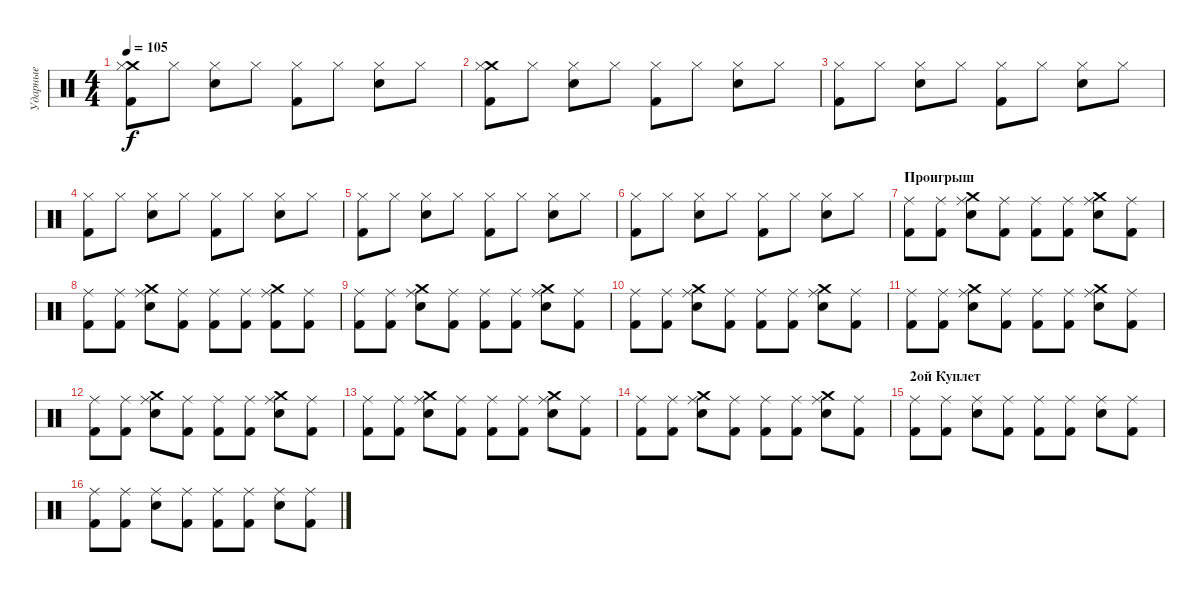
\track ("Ударные" "Ударные") {instrument percussion}
\staff {score}
\articulation defaults
\ts (4 4)
\tempo 105
\clef neutral
\ks c
("Crash medium (hit)" "Hi-Hat (closed)" "Kick (hit) 2").8{dy f} "Hi-Hat (closed)".8 ("Hi-Hat (closed)" "Electric Snare (hit)").8 "Hi-Hat (closed)".8 ("Hi-Hat (closed)" "Kick (hit) 2").8 "Hi-Hat (closed)".8 ("Hi-Hat (closed)" "Electric Snare (hit)").8 "Hi-Hat (closed)".8 |
("Crash medium (hit)" "Hi-Hat (closed)" "Kick (hit) 2").8 "Hi-Hat (closed)".8 ("Hi-Hat (closed)" "Electric Snare (hit)").8 "Hi-Hat (closed)".8 ("Hi-Hat (closed)" "Kick (hit) 2").8 "Hi-Hat (closed)".8 ("Hi-Hat (closed)" "Electric Snare (hit)").8 "Hi-Hat (closed)".8 |
("Hi-Hat (closed)" "Kick (hit) 2").8 "Hi-Hat (closed)".8 ("Hi-Hat (closed)" "Electric Snare (hit)").8 "Hi-Hat (closed)".8 ("Hi-Hat (closed)" "Kick (hit) 2").8 "Hi-Hat (closed)".8 ("Hi-Hat (closed)" "Electric Snare (hit)").8 "Hi-Hat (closed)".8 |
("Hi-Hat (closed)" "Kick (hit) 2").8 "Hi-Hat (closed)".8 ("Hi-Hat (closed)" "Electric Snare (hit)").8 "Hi-Hat (closed)".8 ("Hi-Hat (closed)" "Kick (hit) 2").8 "Hi-Hat (closed)".8 ("Hi-Hat (closed)" "Electric Snare (hit)").8 "Hi-Hat (closed)".8 |
("Hi-Hat (closed)" "Kick (hit) 2").8 "Hi-Hat (closed)".8 ("Hi-Hat (closed)" "Electric Snare (hit)").8 "Hi-Hat (closed)".8 ("Hi-Hat (closed)" "Kick (hit) 2").8 "Hi-Hat (closed)".8 ("Hi-Hat (closed)" "Electric Snare (hit)").8 "Hi-Hat (closed)".8 |
("Hi-Hat (closed)" "Kick (hit) 2").8 "Hi-Hat (closed)".8 ("Hi-Hat (closed)" "Electric Snare (hit)").8 "Hi-Hat (closed)".8 ("Hi-Hat (closed)" "Kick (hit) 2").8 "Hi-Hat (closed)".8 ("Hi-Hat (closed)" "Electric Snare (hit)").8 "Hi-Hat (closed)".8 |
\section ("" "Проигрыш")
("Ride (middle)" "Kick (hit) 2").8 ("Ride (middle)" "Kick (hit) 2").8 ("Crash medium (hit)" "Ride (middle)" "Electric Snare (hit)").8 ("Ride (middle)" "Kick (hit) 2").8 ("Ride (middle)" "Kick (hit) 2").8 ("Ride (middle)" "Kick (hit) 2").8 ("Crash medium (hit)" "Ride (middle)" "Electric Snare (hit)").8 ("Ride (middle)" "Kick (hit) 2").8 |
("Ride (middle)" "Kick (hit) 2").8 ("Ride (middle)" "Kick (hit) 2").8 ("Crash medium (hit)" "Ride (middle)" "Electric Snare (hit)").8 ("Ride (middle)" "Kick (hit) 2").8 ("Ride (middle)" "Kick (hit) 2").8 ("Ride (middle)" "Kick (hit) 2").8 ("Crash medium (hit)" "Ride (middle)" "Kick (hit) 2").8 ("Ride (middle)" "Kick (hit) 2").8 |
("Ride (middle)" "Kick (hit) 2").8 ("Ride (middle)" "Kick (hit) 2").8 ("Crash medium (hit)" "Ride (middle)" "Electric Snare (hit)").8 ("Ride (middle)" "Kick (hit) 2").8 ("Ride (middle)" "Kick (hit) 2").8 ("Ride (middle)" "Kick (hit) 2").8 ("Crash medium (hit)" "Ride (middle)" "Electric Snare (hit)").8 ("Ride (middle)" "Kick (hit) 2").8 |
("Ride (middle)" "Kick (hit) 2").8 ("Ride (middle)" "Kick (hit) 2").8 ("Crash medium (hit)" "Ride (middle)" "Electric Snare (hit)").8 ("Ride (middle)" "Kick (hit) 2").8 ("Ride (middle)" "Kick (hit) 2").8 ("Ride (middle)" "Kick (hit) 2").8 ("Crash medium (hit)" "Ride (middle)" "Electric Snare (hit)").8 ("Ride (middle)" "Kick (hit) 2").8 |
("Ride (middle)" "Kick (hit) 2").8 ("Ride (middle)" "Kick (hit) 2").8 ("Crash medium (hit)" "Ride (middle)" "Electric Snare (hit)").8 ("Ride (middle)" "Kick (hit) 2").8 ("Ride (middle)" "Kick (hit) 2").8 ("Ride (middle)" "Kick (hit) 2").8 ("Crash medium (hit)" "Ride (middle)" "Electric Snare (hit)").8 ("Ride (middle)" "Kick (hit) 2").8 |
("Ride (middle)" "Kick (hit) 2").8 ("Ride (middle)" "Kick (hit) 2").8 ("Crash medium (hit)" "Ride (middle)" "Electric Snare (hit)").8 ("Ride (middle)" "Kick (hit) 2").8 ("Ride (middle)" "Kick (hit) 2").8 ("Ride (middle)" "Kick (hit) 2").8 ("Crash medium (hit)" "Ride (middle)" "Electric Snare (hit)").8 ("Ride (middle)" "Kick (hit) 2").8 |
("Ride (middle)" "Kick (hit) 2").8 ("Ride (middle)" "Kick (hit) 2").8 ("Crash medium (hit)" "Ride (middle)" "Electric Snare (hit)").8 ("Ride (middle)" "Kick (hit) 2").8 ("Ride (middle)" "Kick (hit) 2").8 ("Ride (middle)" "Kick (hit) 2").8 ("Crash medium (hit)" "Ride (middle)" "Electric Snare (hit)").8 ("Ride (middle)" "Kick (hit) 2").8 |
("Ride (middle)" "Kick (hit) 2").8 ("Ride (middle)" "Kick (hit) 2").8 ("Crash medium (hit)" "Ride (middle)" "Electric Snare (hit)").8 ("Ride (middle)" "Kick (hit) 2").8 ("Ride (middle)" "Kick (hit) 2").8 ("Ride (middle)" "Kick (hit) 2").8 ("Crash medium (hit)" "Ride (middle)" "Electric Snare (hit)").8 ("Ride (middle)" "Kick (hit) 2").8 |
\section ("" "2ой Куплет")
("Ride (middle)" "Kick (hit) 2").8 ("Ride (middle)" "Kick (hit) 2").8 ("Ride (middle)" "Electric Snare (hit)").8 ("Ride (middle)" "Kick (hit) 2").8 ("Ride (middle)" "Kick (hit) 2").8 ("Ride (middle)" "Kick (hit) 2").8 ("Ride (middle)" "Electric Snare (hit)").8 ("Ride (middle)" "Kick (hit) 2").8 |
("Ride (middle)" "Kick (hit) 2").8 ("Ride (middle)" "Kick (hit) 2").8 ("Ride (middle)" "Electric Snare (hit)").8 ("Ride (middle)" "Kick (hit) 2").8 ("Ride (middle)" "Kick (hit) 2").8 ("Ride (middle)" "Kick (hit) 2").8 ("Ride (middle)" "Electric Snare (hit)").8 ("Ride (middle)" "Kick (hit) 2").8
